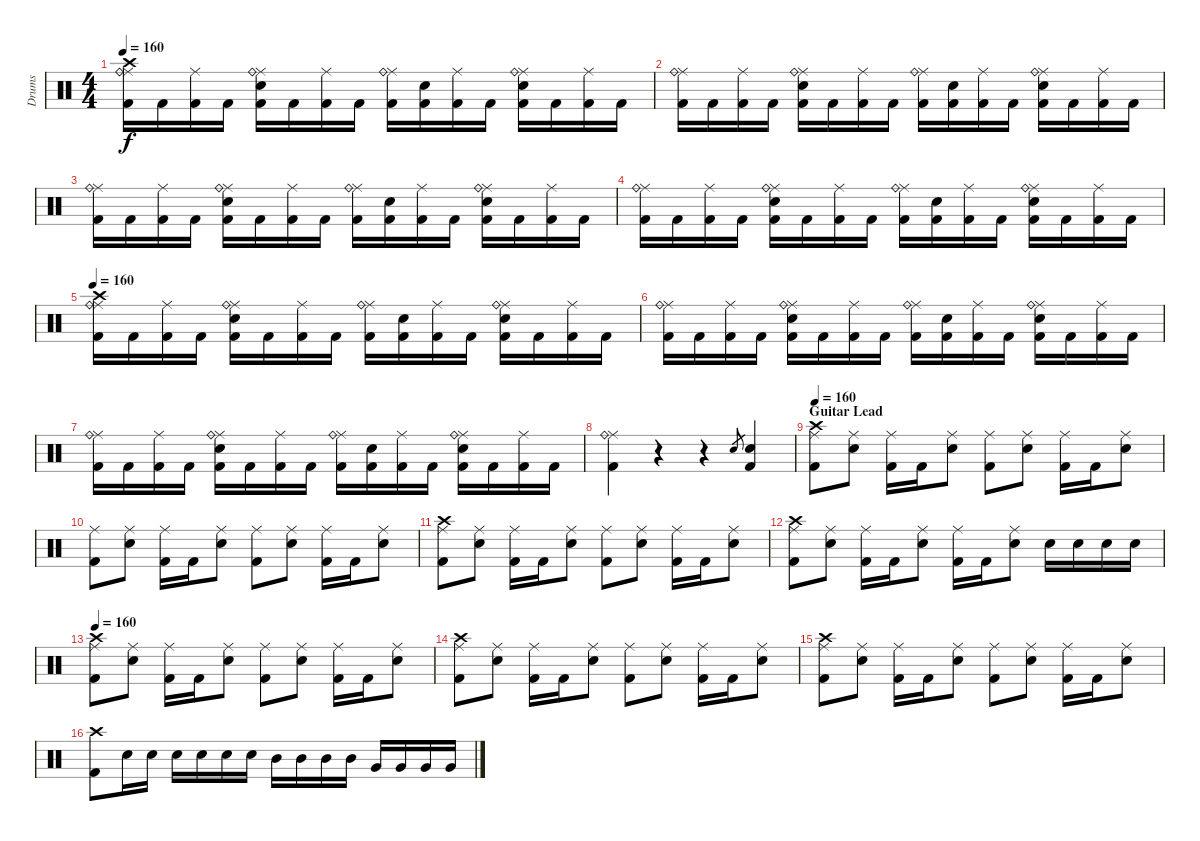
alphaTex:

\track ("Drums" "Drums") {instrument percussion}
\staff {score}
\articulation defaults
\ts (4 4)
\tempo 160
\clef neutral
\ks c
("Ride (middle)" "Ride (bell)" "Crash high (hit)" "Kick (hit) 2").16{dy f} "Kick (hit) 2".16 ("Ride (middle)" "Kick (hit) 2").16 "Kick (hit) 2".16 ("Ride (middle)" "Ride (bell)" "Snare (hit) 2" "Kick (hit) 2").16 "Kick (hit) 2".16 ("Ride (middle)" "Kick (hit) 2").16 "Kick (hit) 2".16 ("Ride (middle)" "Ride (bell)" "Kick (hit) 2").16 ("Snare (hit) 2" "Kick (hit) 2").16 ("Ride (middle)" "Kick (hit) 2").16 "Kick (hit) 2".16 ("Ride (middle)" "Ride (bell)" "Snare (hit) 2" "Kick (hit) 2").16 "Kick (hit) 2".16 ("Ride (middle)" "Kick (hit) 2").16 "Kick (hit) 2".16 |
("Ride (middle)" "Ride (bell)" "Kick (hit) 2").16 "Kick (hit) 2".16 ("Ride (middle)" "Kick (hit) 2").16 "Kick (hit) 2".16 ("Ride (middle)" "Ride (bell)" "Snare (hit) 2" "Kick (hit) 2").16 "Kick (hit) 2".16 ("Ride (middle)" "Kick (hit) 2").16 "Kick (hit) 2".16 ("Ride (middle)" "Ride (bell)" "Kick (hit) 2").16 ("Snare (hit) 2" "Kick (hit) 2").16 ("Ride (middle)" "Kick (hit) 2").16 "Kick (hit) 2".16 ("Ride (middle)" "Ride (bell)" "Snare (hit) 2" "Kick (hit) 2").16 "Kick (hit) 2".16 ("Ride (middle)" "Kick (hit) 2").16 "Kick (hit) 2".16 |
("Ride (middle)" "Ride (bell)" "Kick (hit) 2").16 "Kick (hit) 2".16 ("Ride (middle)" "Kick (hit) 2").16 "Kick (hit) 2".16 ("Ride (middle)" "Ride (bell)" "Snare (hit) 2" "Kick (hit) 2").16 "Kick (hit) 2".16 ("Ride (middle)" "Kick (hit) 2").16 "Kick (hit) 2".16 ("Ride (middle)" "Ride (bell)" "Kick (hit) 2").16 ("Snare (hit) 2" "Kick (hit) 2").16 ("Ride (middle)" "Kick (hit) 2").16 "Kick (hit) 2".16 ("Ride (middle)" "Ride (bell)" "Snare (hit) 2" "Kick (hit) 2").16 "Kick (hit) 2".16 ("Ride (middle)" "Kick (hit) 2").16 "Kick (hit) 2".16 |
("Ride (middle)" "Ride (bell)" "Kick (hit) 2").16 "Kick (hit) 2".16 ("Ride (middle)" "Kick (hit) 2").16 "Kick (hit) 2".16 ("Ride (middle)" "Ride (bell)" "Snare (hit) 2" "Kick (hit) 2").16 "Kick (hit) 2".16 ("Ride (middle)" "Kick (hit) 2").16 "Kick (hit) 2".16 ("Ride (middle)" "Ride (bell)" "Kick (hit) 2").16 ("Snare (hit) 2" "Kick (hit) 2").16 ("Ride (middle)" "Kick (hit) 2").16 "Kick (hit) 2".16 ("Ride (middle)" "Ride (bell)" "Snare (hit) 2" "Kick (hit) 2").16 "Kick (hit) 2".16 ("Ride (middle)" "Kick (hit) 2").16 "Kick (hit) 2".16 |
\tempo 160
("Ride (middle)" "Ride (bell)" "Crash high (hit)" "Kick (hit) 2").16 "Kick (hit) 2".16 ("Ride (middle)" "Kick (hit) 2").16 "Kick (hit) 2".16 ("Ride (middle)" "Ride (bell)" "Snare (hit) 2" "Kick (hit) 2").16 "Kick (hit) 2".16 ("Ride (middle)" "Kick (hit) 2").16 "Kick (hit) 2".16 ("Ride (middle)" "Ride (bell)" "Kick (hit) 2").16 ("Snare (hit) 2" "Kick (hit) 2").16 ("Ride (middle)" "Kick (hit) 2").16 "Kick (hit) 2".16 ("Ride (middle)" "Ride (bell)" "Snare (hit) 2" "Kick (hit) 2").16 "Kick (hit) 2".16 ("Ride (middle)" "Kick (hit) 2").16 "Kick (hit) 2".16 |
("Ride (middle)" "Ride (bell)" "Kick (hit) 2").16 "Kick (hit) 2".16 ("Ride (middle)" "Kick (hit) 2").16 "Kick (hit) 2".16 ("Ride (middle)" "Ride (bell)" "Snare (hit) 2" "Kick (hit) 2").16 "Kick (hit) 2".16 ("Ride (middle)" "Kick (hit) 2").16 "Kick (hit) 2".16 ("Ride (middle)" "Ride (bell)" "Kick (hit) 2").16 ("Snare (hit) 2" "Kick (hit) 2").16 ("Ride (middle)" "Kick (hit) 2").16 "Kick (hit) 2".16 ("Ride (middle)" "Ride (bell)" "Snare (hit) 2" "Kick (hit) 2").16 "Kick (hit) 2".16 ("Ride (middle)" "Kick (hit) 2").16 "Kick (hit) 2".16 |
("Ride (middle)" "Ride (bell)" "Kick (hit) 2").16 "Kick (hit) 2".16 ("Ride (middle)" "Kick (hit) 2").16 "Kick (hit) 2".16 ("Ride (middle)" "Ride (bell)" "Snare (hit) 2" "Kick (hit) 2").16 "Kick (hit) 2".16 ("Ride (middle)" "Kick (hit) 2").16 "Kick (hit) 2".16 ("Ride (middle)" "Ride (bell)" "Kick (hit) 2").16 ("Snare (hit) 2" "Kick (hit) 2").16 ("Ride (middle)" "Kick (hit) 2").16 "Kick (hit) 2".16 ("Ride (middle)" "Ride (bell)" "Snare (hit) 2" "Kick (hit) 2").16 "Kick (hit) 2".16 ("Ride (middle)" "Kick (hit) 2").16 "Kick (hit) 2".16 |
("Ride (middle)" "Ride (bell)" "Kick (hit) 2").4 r.4 r.4 "Snare (hit) 2".8{gr} ("Snare (hit) 2" "Kick (hit) 2").4 |
\section ("" "Guitar Lead")
\tempo 160
("Ride (middle)" "Crash high (hit)" "Kick (hit) 2").8 ("Ride (middle)" "Snare (hit) 2").8 ("Ride (middle)" "Kick (hit) 2").16 "Kick (hit) 2".16 ("Ride (middle)" "Snare (hit) 2").8 ("Ride (middle)" "Kick (hit) 2").8 ("Ride (middle)" "Snare (hit) 2").8 ("Ride (middle)" "Kick (hit) 2").16 "Kick (hit) 2".16 ("Ride (middle)" "Snare (hit) 2").8 |
("Ride (middle)" "Kick (hit) 2").8 ("Ride (middle)" "Snare (hit) 2").8 ("Ride (middle)" "Kick (hit) 2").16 "Kick (hit) 2".16 ("Ride (middle)" "Snare (hit) 2").8 ("Ride (middle)" "Kick (hit) 2").8 ("Ride (middle)" "Snare (hit) 2").8 ("Ride (middle)" "Kick (hit) 2").16 "Kick (hit) 2".16 ("Ride (middle)" "Snare (hit) 2").8 |
("Ride (middle)" "Crash high (hit)" "Kick (hit) 2").8 ("Ride (middle)" "Snare (hit) 2").8 ("Ride (middle)" "Kick (hit) 2").16 "Kick (hit) 2".16 ("Ride (middle)" "Snare (hit) 2").8 ("Ride (middle)" "Kick (hit) 2").8 ("Ride (middle)" "Snare (hit) 2").8 ("Ride (middle)" "Kick (hit) 2").16 "Kick (hit) 2".16 ("Ride (middle)" "Snare (hit) 2").8 |
("Ride (middle)" "Crash high (hit)" "Kick (hit) 2").8 ("Ride (middle)" "Snare (hit) 2").8 ("Ride (middle)" "Kick (hit) 2").16 "Kick (hit) 2".16 ("Ride (middle)" "Snare (hit) 2").8 ("Ride (middle)" "Kick (hit) 2").16 "Kick (hit) 2".16 ("Ride (middle)" "Snare (hit) 2").8 "Snare (hit) 2".16 "Snare (hit) 2".16 "Snare (hit) 2".16 "Snare (hit) 2".16 |
\tempo 160
("Ride (middle)" "Crash high (hit)" "Kick (hit) 2").8 ("Ride (middle)" "Snare (hit) 2").8 ("Ride (middle)" "Kick (hit) 2").16 "Kick (hit) 2".16 ("Ride (middle)" "Snare (hit) 2").8 ("Ride (middle)" "Kick (hit) 2").8 ("Ride (middle)" "Snare (hit) 2").8 ("Ride (middle)" "Kick (hit) 2").16 "Kick (hit) 2".16 ("Ride (middle)" "Snare (hit) 2").8 |
("Ride (middle)" "Crash high (hit)" "Kick (hit) 2").8 ("Ride (middle)" "Snare (hit) 2").8 ("Ride (middle)" "Kick (hit) 2").16 "Kick (hit) 2".16 ("Ride (middle)" "Snare (hit) 2").8 ("Ride (middle)" "Kick (hit) 2").8 ("Ride (middle)" "Snare (hit) 2").8 ("Ride (middle)" "Kick (hit) 2").16 "Kick (hit) 2".16 ("Ride (middle)" "Snare (hit) 2").8 |
("Ride (middle)" "Crash high (hit)" "Kick (hit) 2").8 ("Ride (middle)" "Snare (hit) 2").8 ("Ride (middle)" "Kick (hit) 2").16 "Kick (hit) 2".16 ("Ride (middle)" "Snare (hit) 2").8 ("Ride (middle)" "Kick (hit) 2").8 ("Ride (middle)" "Snare (hit) 2").8 ("Ride (middle)" "Kick (hit) 2").16 "Kick (hit) 2".16 ("Ride (middle)" "Snare (hit) 2").8 |
("Crash high (hit)" "Kick (hit) 2").8 "Snare (hit) 2".16 "Snare (hit) 2".16 "Snare (hit) 2".16 "Snare (hit) 2".16 "Snare (hit) 2".16 "Snare (hit) 2".16 "Mid Tom (hit)".16 "Mid Tom (hit)".16 "Mid Tom (hit)".16 "Mid Tom (hit)".16 "Very Low Tom (hit)".16 "Very Low Tom (hit)".16 "Very Low Tom (hit)".16 "Very Low Tom (hit)".16
